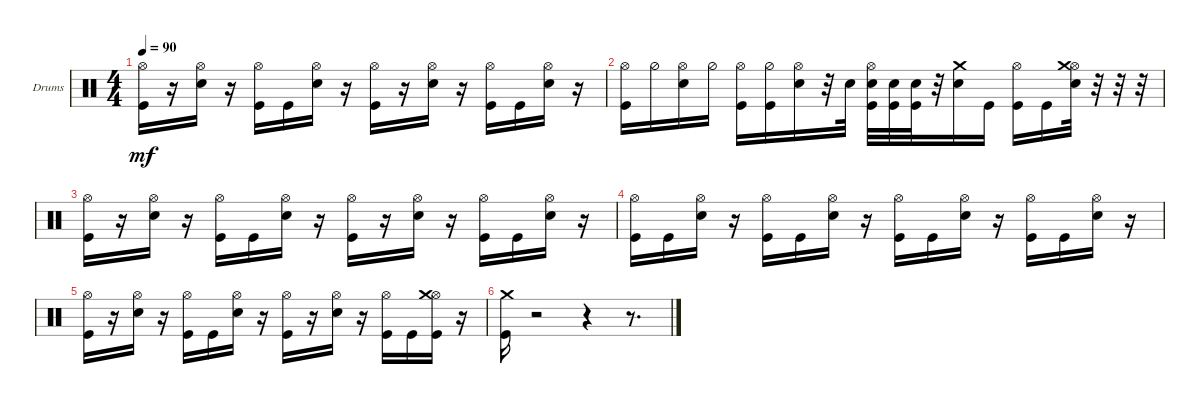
\bracketExtendMode groupsimilarinstruments
\firstSystemTrackNameOrientation horizontal
\otherSystemsTrackNameOrientation horizontal
\track ("Drumkit" "Drums") {instrument percussion}
\staff {score}
\articulation defaults
\ts (4 4)
\tempo 90
\clef neutral
\ks c
("Hi-Hat (open)" "Kick (hit)").16{dy mf} r.16 ("Hi-Hat (open)" "Snare (hit) 2").16 r.16 ("Hi-Hat (open)" "Kick (hit)").16 "Kick (hit)".16 ("Hi-Hat (open)" "Snare (hit) 2").16 r.16 ("Hi-Hat (open)" "Kick (hit)").16 r.16 ("Hi-Hat (open)" "Snare (hit) 2").16 r.16 ("Hi-Hat (open)" "Kick (hit)").16 "Kick (hit)".16 ("Hi-Hat (open)" "Snare (hit) 2").16 r.16 |
("Hi-Hat (open)" "Kick (hit)").16 "Hi-Hat (half)".16 ("Hi-Hat (open)" "Snare (hit) 2").16 "Hi-Hat (half)".16 ("Hi-Hat (open)" "Kick (hit)").16 ("Kick (hit)" "Hi-Hat (half)").16 ("Hi-Hat (open)" "Snare (hit) 2").16 r.32 "Snare (hit) 2".32 ("Hi-Hat (open)" "Snare (hit) 2" "Kick (hit)").32 ("Kick (hit)" "Snare (hit) 2").32 ("Kick (hit)" "Snare (hit) 2").32 r.32 ("Crash medium (hit)" "Snare (hit) 2").16 "Kick (hit)".16 ("Hi-Hat (open)" "Kick (hit)").16 "Kick (hit)".16 ("Hi-Hat (open)" "Crash medium (hit)" "Snare (hit) 2").32 r.32 r.32 r.32 |
("Hi-Hat (open)" "Kick (hit)").16 r.16 ("Hi-Hat (open)" "Snare (hit) 2").16 r.16 ("Hi-Hat (open)" "Kick (hit)").16 "Kick (hit)".16 ("Hi-Hat (open)" "Snare (hit) 2").16 r.16 ("Hi-Hat (open)" "Kick (hit)").16 r.16 ("Hi-Hat (open)" "Snare (hit) 2").16 r.16 ("Hi-Hat (open)" "Kick (hit)").16 "Kick (hit)".16 ("Hi-Hat (open)" "Snare (hit) 2").16 r.16 |
("Hi-Hat (open)" "Kick (hit)").16 "Kick (hit)".16 ("Hi-Hat (open)" "Snare (hit) 2").16 r.16 ("Hi-Hat (open)" "Kick (hit)").16 "Kick (hit)".16 ("Hi-Hat (open)" "Snare (hit) 2").16 r.16 ("Hi-Hat (open)" "Kick (hit)").16 "Kick (hit)".16 ("Hi-Hat (open)" "Snare (hit) 2").16 r.16 ("Hi-Hat (open)" "Kick (hit)").16 "Kick (hit)".16 ("Hi-Hat (open)" "Snare (hit) 2").16 r.16 |
("Hi-Hat (open)" "Kick (hit)").16 r.16 ("Hi-Hat (open)" "Snare (hit) 2").16 r.16 ("Hi-Hat (open)" "Kick (hit)").16 "Kick (hit)".16 ("Hi-Hat (open)" "Snare (hit) 2").16 r.16 ("Hi-Hat (open)" "Kick (hit)").16 r.16 ("Hi-Hat (open)" "Snare (hit) 2").16 r.16 ("Hi-Hat (open)" "Kick (hit)").16 "Kick (hit)".16 ("Hi-Hat (open)" "Crash medium (hit)" "Kick (hit)").16 r.16 |
("Crash medium (hit)" "Kick (hit)").16 r.2 r.4 r.8{d}
